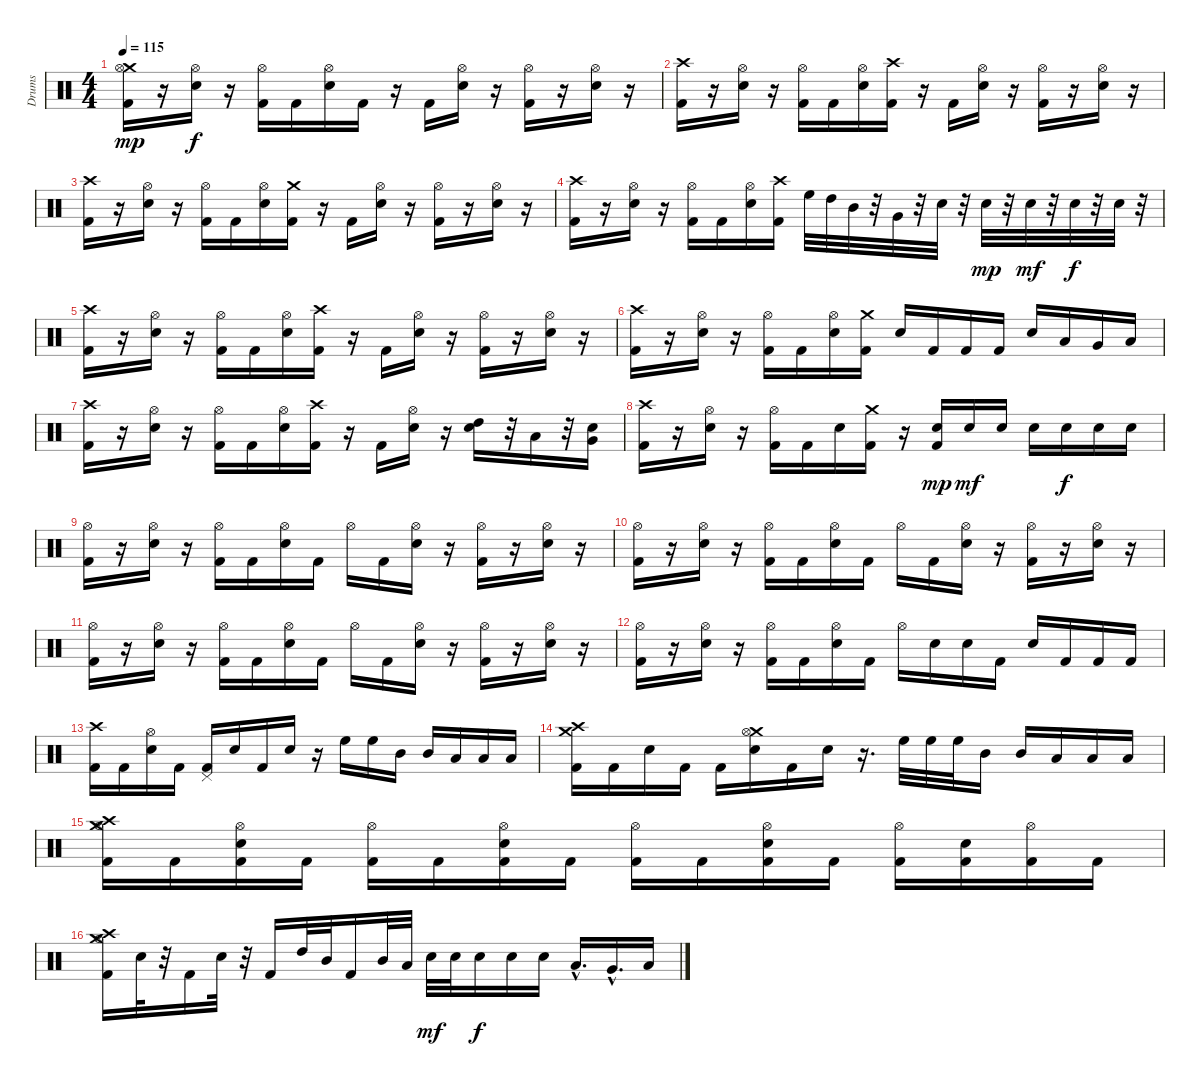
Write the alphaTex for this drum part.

\track ("Drums" "Drums") {instrument percussion}
\staff {score}
\articulation defaults
\ts (4 4)
\tempo 115
\clef neutral
\ks c
("Crash medium (hit)" "Kick (hit) 2" "Hi-Hat (open)").16{dy mp} r.16 ("Electric Snare (hit)" "Hi-Hat (open)").16{dy f} r.16 ("Kick (hit) 2" "Hi-Hat (open)").16 "Kick (hit) 2".16 ("Electric Snare (hit)" "Hi-Hat (open)").16 "Kick (hit) 2".16 r.16 "Kick (hit) 2".16 ("Electric Snare (hit)" "Hi-Hat (open)").16 r.16 ("Kick (hit) 2" "Hi-Hat (open)").16 r.16 ("Electric Snare (hit)" "Hi-Hat (open)").16 r.16 |
("Kick (hit) 2" "Crash high (hit)").16 r.16 ("Electric Snare (hit)" "Hi-Hat (open)").16 r.16 ("Kick (hit) 2" "Hi-Hat (open)").16 "Kick (hit) 2".16 ("Electric Snare (hit)" "Hi-Hat (open)").16 ("Kick (hit) 2" "Crash high (hit)").16 r.16 "Kick (hit) 2".16 ("Electric Snare (hit)" "Hi-Hat (open)").16 r.16 ("Kick (hit) 2" "Hi-Hat (open)").16 r.16 ("Electric Snare (hit)" "Hi-Hat (open)").16 r.16 |
("Kick (hit) 2" "Crash high (hit)").16 r.16 ("Electric Snare (hit)" "Hi-Hat (open)").16 r.16 ("Kick (hit) 2" "Hi-Hat (open)").16 "Kick (hit) 2".16 ("Electric Snare (hit)" "Hi-Hat (open)").16 ("Kick (hit) 2" "Crash medium (hit)").16 r.16 "Kick (hit) 2".16 ("Electric Snare (hit)" "Hi-Hat (open)").16 r.16 ("Kick (hit) 2" "Hi-Hat (open)").16 r.16 ("Electric Snare (hit)" "Hi-Hat (open)").16 r.16 |
("Kick (hit) 2" "Crash high (hit)").16 r.16 ("Electric Snare (hit)" "Hi-Hat (open)").16 r.16 ("Kick (hit) 2" "Hi-Hat (open)").16 "Kick (hit) 2".16 ("Electric Snare (hit)" "Hi-Hat (open)").16 ("Kick (hit) 2" "Crash high (hit)").16 "High Floor Tom (hit)".32 "High Tom (hit)".32 "Mid Tom (hit)".32 r.32 "Very Low Tom (hit)".32 r.32 "Electric Snare (hit)".32 r.32 "Electric Snare (hit)".32{dy mp} r.32 "Electric Snare (hit)".32{dy mf} r.32 "Electric Snare (hit)".32{dy f} r.32 "Electric Snare (hit)".32 r.32 |
("Kick (hit) 2" "Crash high (hit)").16 r.16 ("Electric Snare (hit)" "Hi-Hat (open)").16 r.16 ("Kick (hit) 2" "Hi-Hat (open)").16 "Kick (hit) 2".16 ("Electric Snare (hit)" "Hi-Hat (open)").16 ("Kick (hit) 2" "Crash high (hit)").16 r.16 "Kick (hit) 2".16 ("Electric Snare (hit)" "Hi-Hat (open)").16 r.16 ("Kick (hit) 2" "Hi-Hat (open)").16 r.16 ("Electric Snare (hit)" "Hi-Hat (open)").16 r.16 |
("Kick (hit) 2" "Crash high (hit)").16 r.16 ("Electric Snare (hit)" "Hi-Hat (open)").16 r.16 ("Kick (hit) 2" "Hi-Hat (open)").16 "Kick (hit) 2".16 ("Electric Snare (hit)" "Hi-Hat (open)").16 ("Kick (hit) 2" "Crash medium (hit)").16 "Electric Snare (hit)".16 "Kick (hit) 2".16 "Kick (hit) 2".16 "Kick (hit) 2".16 "Electric Snare (hit)".16 "Low Tom (hit)".16 "Very Low Tom (hit)".16 "Low Floor Tom (hit)".16 |
("Kick (hit) 2" "Crash high (hit)").16 r.16 ("Electric Snare (hit)" "Hi-Hat (open)").16 r.16 ("Kick (hit) 2" "Hi-Hat (open)").16 "Kick (hit) 2".16 ("Electric Snare (hit)" "Hi-Hat (open)").16 ("Kick (hit) 2" "Crash high (hit)").16 r.16 "Kick (hit) 2".16 ("Electric Snare (hit)" "Hi-Hat (open)").16 r.16 ("High Tom (hit)" "Electric Snare (hit)").16 r.32 "Low Tom (hit)".16 r.32 ("Very Low Tom (hit)" "Electric Snare (hit)").16 |
("Kick (hit) 2" "Crash high (hit)").16 r.16 ("Electric Snare (hit)" "Hi-Hat (open)").16 r.16 ("Kick (hit) 2" "Hi-Hat (open)").16 "Kick (hit) 2".16 "Electric Snare (hit)".16 ("Kick (hit) 2" "Crash medium (hit)").16 r.16 ("Kick (hit) 2" "Electric Snare (hit)").16{dy mp} "Electric Snare (hit)".16{dy mf} "Electric Snare (hit)".16 "Electric Snare (hit)".16 "Electric Snare (hit)".16{dy f} "Electric Snare (hit)".16 "Electric Snare (hit)".16 |
("Kick (hit) 2" "Hi-Hat (open)").16 r.16 ("Electric Snare (hit)" "Hi-Hat (open)").16 r.16 ("Kick (hit) 2" "Hi-Hat (open)").16 "Kick (hit) 2".16 ("Electric Snare (hit)" "Hi-Hat (open)").16 "Kick (hit) 2".16 "Hi-Hat (open)".16 "Kick (hit) 2".16 ("Electric Snare (hit)" "Hi-Hat (open)").16 r.16 ("Kick (hit) 2" "Hi-Hat (open)").16 r.16 ("Electric Snare (hit)" "Hi-Hat (open)").16 r.16 |
("Kick (hit) 2" "Hi-Hat (open)").16 r.16 ("Electric Snare (hit)" "Hi-Hat (open)").16 r.16 ("Kick (hit) 2" "Hi-Hat (open)").16 "Kick (hit) 2".16 ("Electric Snare (hit)" "Hi-Hat (open)").16 "Kick (hit) 2".16 "Hi-Hat (open)".16 "Kick (hit) 2".16 ("Electric Snare (hit)" "Hi-Hat (open)").16 r.16 ("Kick (hit) 2" "Hi-Hat (open)").16 r.16 ("Electric Snare (hit)" "Hi-Hat (open)").16 r.16 |
("Kick (hit) 2" "Hi-Hat (open)").16 r.16 ("Electric Snare (hit)" "Hi-Hat (open)").16 r.16 ("Kick (hit) 2" "Hi-Hat (open)").16 "Kick (hit) 2".16 ("Electric Snare (hit)" "Hi-Hat (open)").16 "Kick (hit) 2".16 "Hi-Hat (open)".16 "Kick (hit) 2".16 ("Electric Snare (hit)" "Hi-Hat (open)").16 r.16 ("Kick (hit) 2" "Hi-Hat (open)").16 r.16 ("Electric Snare (hit)" "Hi-Hat (open)").16 r.16 |
("Kick (hit) 2" "Hi-Hat (open)").16 r.16 ("Electric Snare (hit)" "Hi-Hat (open)").16 r.16 ("Kick (hit) 2" "Hi-Hat (open)").16 "Kick (hit) 2".16 ("Electric Snare (hit)" "Hi-Hat (open)").16 "Kick (hit) 2".16 "Hi-Hat (open)".16 "Electric Snare (hit)".16 "Electric Snare (hit)".16 "Kick (hit) 2".16 "Electric Snare (hit)".16 "Kick (hit) 2".16 "Kick (hit) 2".16 "Kick (hit) 2".16 |
("Kick (hit) 2" "Crash high (hit)").16 "Kick (hit) 2".16 ("Electric Snare (hit)" "Hi-Hat (open)").16 "Kick (hit) 2".16 ("Kick (hit) 2" "Pedal Hi-Hat (hit)").16 "Electric Snare (hit)".16 "Kick (hit) 2".16 "Electric Snare (hit)".16 r.16 "High Floor Tom (hit)".16 "High Floor Tom (hit)".16 "Mid Tom (hit)".16 "Mid Tom (hit)".16 "Low Tom (hit)".16 "Low Tom (hit)".16 "Low Tom (hit)".16 |
("Kick (hit) 2" "Crash high (hit)" "Crash medium (hit)").16 "Kick (hit) 2".16 "Electric Snare (hit)".16 "Kick (hit) 2".16 "Kick (hit) 2".16 ("Electric Snare (hit)" "Crash medium (hit)" "Hi-Hat (open)").16 "Kick (hit) 2".16 "Electric Snare (hit)".16 r.16{d} "High Floor Tom (hit)".32 "High Floor Tom (hit)".32 "High Floor Tom (hit)".32 "Mid Tom (hit)".16 "Mid Tom (hit)".16 "Low Tom (hit)".16 "Low Tom (hit)".16 "Low Tom (hit)".16 |
("Kick (hit) 2" "Crash high (hit)" "Hi-Hat (open)" "Crash medium (hit)").16 "Kick (hit) 2".16 ("Electric Snare (hit)" "Kick (hit) 2" "Hi-Hat (open)").16 "Kick (hit) 2".16 ("Kick (hit) 2" "Hi-Hat (open)").16 "Kick (hit) 2".16 ("Kick (hit) 2" "Electric Snare (hit)" "Hi-Hat (open)").16 "Kick (hit) 2".16 ("Kick (hit) 2" "Hi-Hat (open)").16 "Kick (hit) 2".16 ("Kick (hit) 2" "Electric Snare (hit)" "Hi-Hat (open)").16 "Kick (hit) 2".16 ("Kick (hit) 2" "Hi-Hat (open)").16 ("Electric Snare (hit)" "Kick (hit) 2").16 ("Kick (hit) 2" "Hi-Hat (open)").16 "Kick (hit) 2".16 |
("Kick (hit) 2" "Hi-Hat (open)" "Crash high (hit)" "Crash medium (hit)").16 "Electric Snare (hit)".32 r.32 "Kick (hit) 2".16 "Electric Snare (hit)".32 r.32 "Kick (hit) 2".16 "High Tom (hit)".32 "Mid Tom (hit)".32 "Kick (hit) 2".16 "Mid Tom (hit)".32 "Low Tom (hit)".32 "Electric Snare (hit)".32{dy mf} "Electric Snare (hit)".32 "Electric Snare (hit)".16{dy f} "Electric Snare (hit)".16 "Electric Snare (hit)".16 "Low Tom (hit)"{hac}.16{d} "Very Low Tom (hit)"{hac}.16{d} "Low Floor Tom (hit)".16
